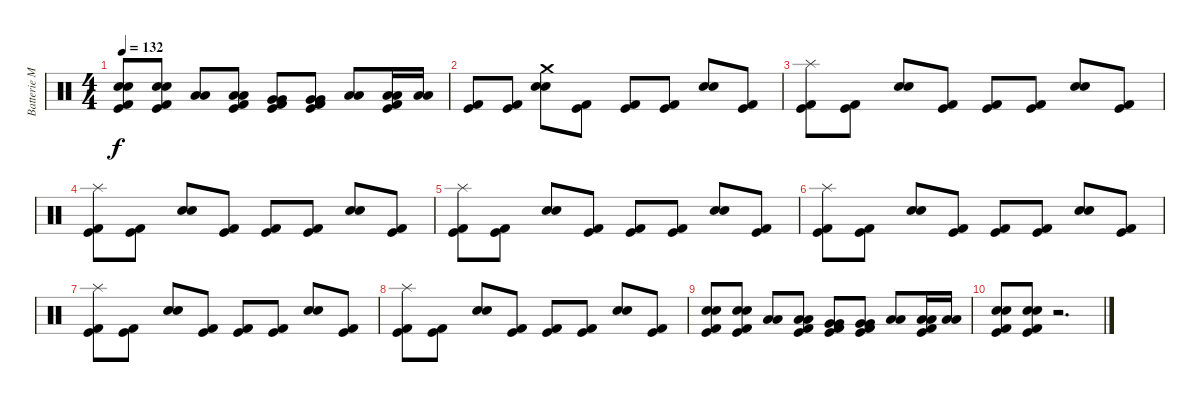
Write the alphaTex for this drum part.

\track ("Batterie Mat" "Batterie M") {instrument percussion}
\staff {score}
\articulation defaults
\ts (4 4)
\tempo 132
\clef neutral
\ks c
("Electric Snare (hit)" "Electric Snare (hit)" "Kick (hit) 2" "Kick (hit)").8{dy f} ("Electric Snare (hit)" "Electric Snare (hit)" "Kick (hit) 2" "Kick (hit)").8 ("Low Tom (hit)" "Low Tom (hit)").8 ("Low Tom (hit)" "Low Tom (hit)" "Kick (hit) 2" "Kick (hit)").8 ("Very Low Tom (hit)" "Very Low Tom (hit)" "Kick (hit) 2" "Kick (hit)").8 ("Very Low Tom (hit)" "Very Low Tom (hit)" "Kick (hit) 2" "Kick (hit)").8 ("Low Floor Tom (hit)" "Low Floor Tom (hit)").8 ("Low Floor Tom (hit)" "Low Floor Tom (hit)" "Kick (hit) 2" "Kick (hit)").16 ("Low Floor Tom (hit)" "Low Floor Tom (hit)").16 |
("Kick (hit) 2" "Kick (hit)").8 ("Kick (hit) 2" "Kick (hit)").8 ("Crash medium (hit)" "Electric Snare (hit)" "Electric Snare (hit)").8 ("Kick (hit) 2" "Kick (hit)").8 ("Kick (hit) 2" "Kick (hit)").8 ("Kick (hit) 2" "Kick (hit)").8 ("Electric Snare (hit)" "Electric Snare (hit)").8 ("Kick (hit) 2" "Kick (hit)").8 |
("Splash (hit)" "Kick (hit) 2" "Kick (hit)").8 ("Kick (hit) 2" "Kick (hit)").8 ("Electric Snare (hit)" "Electric Snare (hit)").8 ("Kick (hit) 2" "Kick (hit)").8 ("Kick (hit) 2" "Kick (hit)").8 ("Kick (hit) 2" "Kick (hit)").8 ("Electric Snare (hit)" "Electric Snare (hit)").8 ("Kick (hit) 2" "Kick (hit)").8 |
("Splash (hit)" "Kick (hit) 2" "Kick (hit)").8 ("Kick (hit) 2" "Kick (hit)").8 ("Electric Snare (hit)" "Electric Snare (hit)").8 ("Kick (hit) 2" "Kick (hit)").8 ("Kick (hit) 2" "Kick (hit)").8 ("Kick (hit) 2" "Kick (hit)").8 ("Electric Snare (hit)" "Electric Snare (hit)").8 ("Kick (hit) 2" "Kick (hit)").8 |
("Splash (hit)" "Kick (hit) 2" "Kick (hit)").8 ("Kick (hit) 2" "Kick (hit)").8 ("Electric Snare (hit)" "Electric Snare (hit)").8 ("Kick (hit) 2" "Kick (hit)").8 ("Kick (hit) 2" "Kick (hit)").8 ("Kick (hit) 2" "Kick (hit)").8 ("Electric Snare (hit)" "Electric Snare (hit)").8 ("Kick (hit) 2" "Kick (hit)").8 |
("Splash (hit)" "Kick (hit) 2" "Kick (hit)").8 ("Kick (hit) 2" "Kick (hit)").8 ("Electric Snare (hit)" "Electric Snare (hit)").8 ("Kick (hit) 2" "Kick (hit)").8 ("Kick (hit) 2" "Kick (hit)").8 ("Kick (hit) 2" "Kick (hit)").8 ("Electric Snare (hit)" "Electric Snare (hit)").8 ("Kick (hit) 2" "Kick (hit)").8 |
("Splash (hit)" "Kick (hit) 2" "Kick (hit)").8 ("Kick (hit) 2" "Kick (hit)").8 ("Electric Snare (hit)" "Electric Snare (hit)").8 ("Kick (hit) 2" "Kick (hit)").8 ("Kick (hit) 2" "Kick (hit)").8 ("Kick (hit) 2" "Kick (hit)").8 ("Electric Snare (hit)" "Electric Snare (hit)").8 ("Kick (hit) 2" "Kick (hit)").8 |
("Splash (hit)" "Kick (hit) 2" "Kick (hit)").8 ("Kick (hit) 2" "Kick (hit)").8 ("Electric Snare (hit)" "Electric Snare (hit)").8 ("Kick (hit) 2" "Kick (hit)").8 ("Kick (hit) 2" "Kick (hit)").8 ("Kick (hit) 2" "Kick (hit)").8 ("Electric Snare (hit)" "Electric Snare (hit)").8 ("Kick (hit) 2" "Kick (hit)").8 |
("Electric Snare (hit)" "Electric Snare (hit)" "Kick (hit) 2" "Kick (hit)").8 ("Electric Snare (hit)" "Electric Snare (hit)" "Kick (hit) 2" "Kick (hit)").8 ("Low Tom (hit)" "Low Tom (hit)").8 ("Low Tom (hit)" "Low Tom (hit)" "Kick (hit) 2" "Kick (hit)").8 ("Very Low Tom (hit)" "Very Low Tom (hit)" "Kick (hit) 2" "Kick (hit)").8 ("Very Low Tom (hit)" "Very Low Tom (hit)" "Kick (hit) 2" "Kick (hit)").8 ("Low Floor Tom (hit)" "Low Floor Tom (hit)").8 ("Low Floor Tom (hit)" "Low Floor Tom (hit)" "Kick (hit) 2" "Kick (hit)").16 ("Low Floor Tom (hit)" "Low Floor Tom (hit)").16 |
("Electric Snare (hit)" "Electric Snare (hit)" "Kick (hit) 2" "Kick (hit)").8 ("Electric Snare (hit)" "Electric Snare (hit)" "Kick (hit) 2" "Kick (hit)").8 r.2{d}
